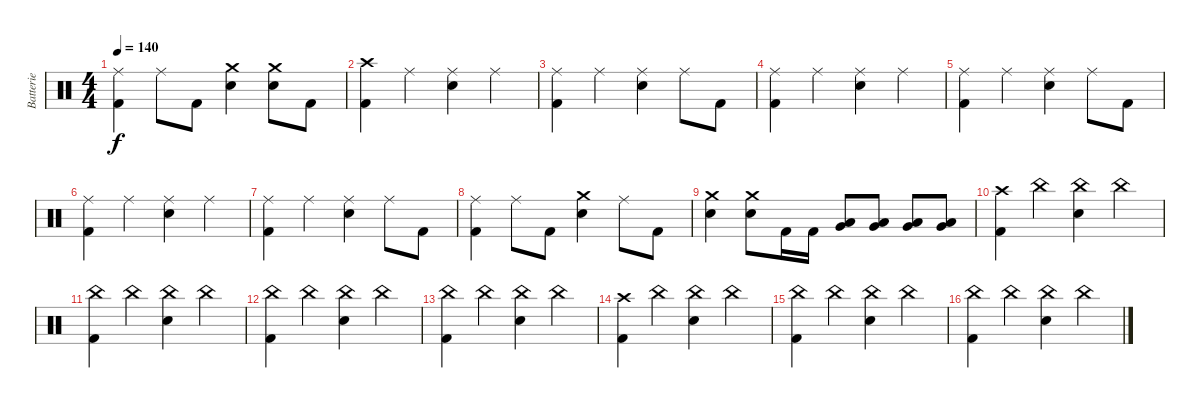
\track ("Batterie" "Batterie") {instrument percussion}
\staff {score}
\articulation defaults
\ts (4 4)
\tempo 140
\clef neutral
\ks c
("Ride (middle)" "Kick (hit) 2").4{dy f} "Ride (middle)".8 "Kick (hit) 2".8 ("Crash medium (hit)" "Electric Snare (hit)").4 ("Crash medium (hit)" "Electric Snare (hit)").8 "Kick (hit) 2".8 |
("Crash high (hit)" "Kick (hit) 2").4 "Ride (middle)".4 ("Ride (middle)" "Electric Snare (hit)").4 "Ride (middle)".4 |
("Ride (middle)" "Kick (hit) 2").4 "Ride (middle)".4 ("Ride (middle)" "Electric Snare (hit)").4 "Ride (middle)".8 "Kick (hit) 2".8 |
("Ride (middle)" "Kick (hit) 2").4 "Ride (middle)".4 ("Ride (middle)" "Electric Snare (hit)").4 "Ride (middle)".4 |
("Ride (middle)" "Kick (hit) 2").4 "Ride (middle)".4 ("Ride (middle)" "Electric Snare (hit)").4 "Ride (middle)".8 "Kick (hit) 2".8 |
("Ride (middle)" "Kick (hit) 2").4 "Ride (middle)".4 ("Ride (middle)" "Electric Snare (hit)").4 "Ride (middle)".4 |
("Ride (middle)" "Kick (hit) 2").4 "Ride (middle)".4 ("Ride (middle)" "Electric Snare (hit)").4 "Ride (middle)".8 "Kick (hit) 2".8 |
("Ride (middle)" "Kick (hit) 2").4 "Ride (middle)".8 "Kick (hit) 2".8 ("Crash medium (hit)" "Electric Snare (hit)").4 "Ride (middle)".8 "Kick (hit) 2".8 |
("Crash medium (hit)" "Electric Snare (hit)").4 ("Crash medium (hit)" "Electric Snare (hit)").8 "Kick (hit) 2".16 "Kick (hit) 2".16 ("Low Tom (hit)" "Very Low Tom (hit)").8{bu 60} ("Low Tom (hit)" "Very Low Tom (hit)").8{bu 60} ("Very Low Tom (hit)" "Low Floor Tom (hit)").8{bu 60} ("Very Low Tom (hit)" "Low Floor Tom (hit)").8{bu 60} |
("Crash high (hit)" "Kick (hit) 2").4 "China (hit)".4 ("China (hit)" "Electric Snare (hit)").4 "China (hit)".4 |
("China (hit)" "Kick (hit) 2").4 "China (hit)".4 ("China (hit)" "Electric Snare (hit)").4 "China (hit)".4 |
("China (hit)" "Kick (hit) 2").4 "China (hit)".4 ("China (hit)" "Electric Snare (hit)").4 "China (hit)".4 |
("China (hit)" "Kick (hit) 2").4 "China (hit)".4 ("China (hit)" "Electric Snare (hit)").4 "China (hit)".4 |
("Crash high (hit)" "Kick (hit) 2").4 "China (hit)".4 ("China (hit)" "Electric Snare (hit)").4 "China (hit)".4 |
("China (hit)" "Kick (hit) 2").4 "China (hit)".4 ("China (hit)" "Electric Snare (hit)").4 "China (hit)".4 |
("China (hit)" "Kick (hit) 2").4 "China (hit)".4 ("China (hit)" "Electric Snare (hit)").4 "China (hit)".4
